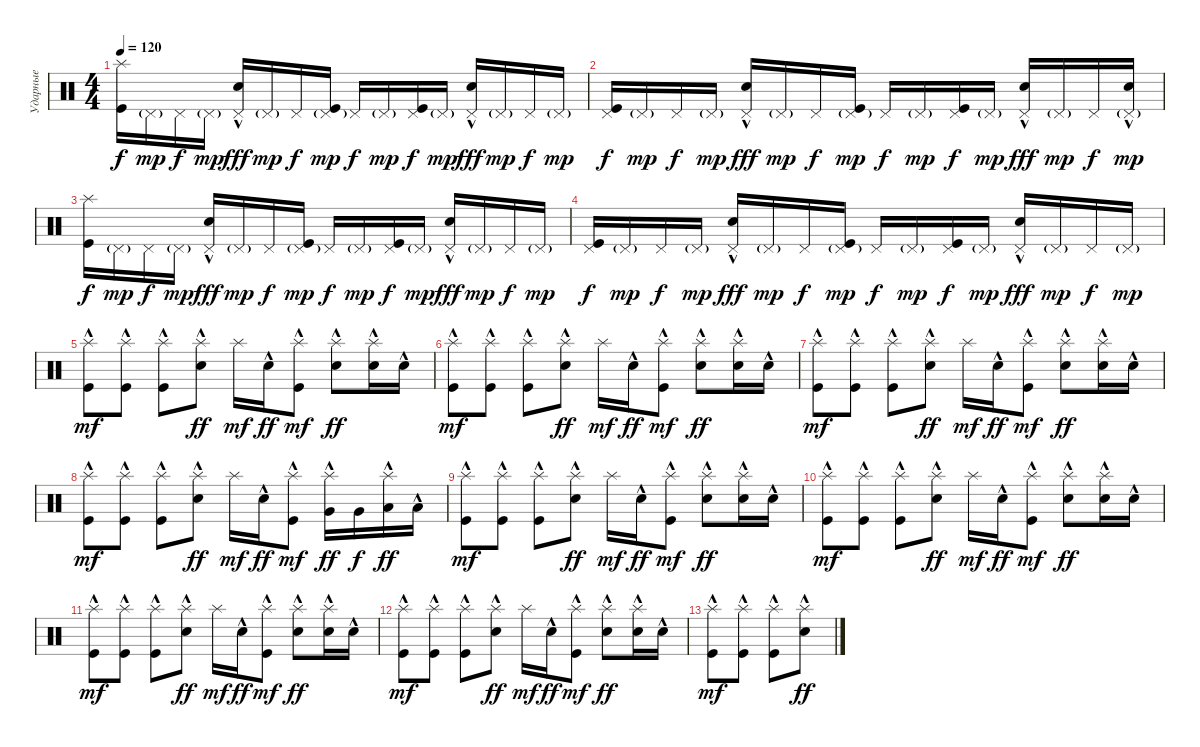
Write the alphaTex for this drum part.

\track ("Ударные" "Ударные") {instrument percussion}
\staff {score}
\articulation defaults
\ts (4 4)
\tempo 120
\clef neutral
\ks c
("Kick (hit)" "Splash (hit)").16{dy f} "Pedal Hi-Hat (hit)"{g}.16{dy mp} "Pedal Hi-Hat (hit)".16{dy f} "Pedal Hi-Hat (hit)"{g}.16{dy mp} ("Electric Snare (hit)"{hac} "Pedal Hi-Hat (hit)").16{dy fff} "Pedal Hi-Hat (hit)"{g}.16{dy mp} "Pedal Hi-Hat (hit)".16{dy f} ("Kick (hit)" "Pedal Hi-Hat (hit)"{g}).16{dy mp} "Pedal Hi-Hat (hit)".16{dy f} "Pedal Hi-Hat (hit)"{g}.16{dy mp} ("Kick (hit)" "Pedal Hi-Hat (hit)").16{dy f} "Pedal Hi-Hat (hit)"{g}.16{dy mp} ("Electric Snare (hit)"{hac} "Pedal Hi-Hat (hit)").16{dy fff} "Pedal Hi-Hat (hit)"{g}.16{dy mp} "Pedal Hi-Hat (hit)".16{dy f} "Pedal Hi-Hat (hit)"{g}.16{dy mp} |
("Kick (hit)" "Pedal Hi-Hat (hit)").16{dy f} "Pedal Hi-Hat (hit)"{g}.16{dy mp} "Pedal Hi-Hat (hit)".16{dy f} "Pedal Hi-Hat (hit)"{g}.16{dy mp} ("Electric Snare (hit)"{hac} "Pedal Hi-Hat (hit)").16{dy fff} "Pedal Hi-Hat (hit)"{g}.16{dy mp} "Pedal Hi-Hat (hit)".16{dy f} ("Kick (hit)" "Pedal Hi-Hat (hit)"{g}).16{dy mp} "Pedal Hi-Hat (hit)".16{dy f} "Pedal Hi-Hat (hit)"{g}.16{dy mp} ("Kick (hit)" "Pedal Hi-Hat (hit)").16{dy f} "Pedal Hi-Hat (hit)"{g}.16{dy mp} ("Electric Snare (hit)"{hac} "Pedal Hi-Hat (hit)").16{dy fff} "Pedal Hi-Hat (hit)"{g}.16{dy mp} "Pedal Hi-Hat (hit)".16{dy f} ("Electric Snare (hit)"{hac} "Pedal Hi-Hat (hit)"{g}).16{dy mp} |
("Kick (hit)" "Splash (hit)").16{dy f} "Pedal Hi-Hat (hit)"{g}.16{dy mp} "Pedal Hi-Hat (hit)".16{dy f} "Pedal Hi-Hat (hit)"{g}.16{dy mp} ("Electric Snare (hit)"{hac} "Pedal Hi-Hat (hit)").16{dy fff} "Pedal Hi-Hat (hit)"{g}.16{dy mp} "Pedal Hi-Hat (hit)".16{dy f} ("Kick (hit)" "Pedal Hi-Hat (hit)"{g}).16{dy mp} "Pedal Hi-Hat (hit)".16{dy f} "Pedal Hi-Hat (hit)"{g}.16{dy mp} ("Kick (hit)" "Pedal Hi-Hat (hit)").16{dy f} "Pedal Hi-Hat (hit)"{g}.16{dy mp} ("Electric Snare (hit)"{hac} "Pedal Hi-Hat (hit)").16{dy fff} "Pedal Hi-Hat (hit)"{g}.16{dy mp} "Pedal Hi-Hat (hit)".16{dy f} "Pedal Hi-Hat (hit)"{g}.16{dy mp} |
("Kick (hit)" "Pedal Hi-Hat (hit)").16{dy f} "Pedal Hi-Hat (hit)"{g}.16{dy mp} "Pedal Hi-Hat (hit)".16{dy f} "Pedal Hi-Hat (hit)"{g}.16{dy mp} ("Electric Snare (hit)"{hac} "Pedal Hi-Hat (hit)").16{dy fff} "Pedal Hi-Hat (hit)"{g}.16{dy mp} "Pedal Hi-Hat (hit)".16{dy f} ("Kick (hit)" "Pedal Hi-Hat (hit)"{g}).16{dy mp} "Pedal Hi-Hat (hit)".16{dy f} "Pedal Hi-Hat (hit)"{g}.16{dy mp} ("Kick (hit)" "Pedal Hi-Hat (hit)").16{dy f} "Pedal Hi-Hat (hit)"{g}.16{dy mp} ("Electric Snare (hit)"{hac} "Pedal Hi-Hat (hit)").16{dy fff} "Pedal Hi-Hat (hit)"{g}.16{dy mp} "Pedal Hi-Hat (hit)".16{dy f} "Pedal Hi-Hat (hit)"{g}.16{dy mp} |
("Kick (hit)"{hac} "Splash (hit)").8{dy mf} ("Kick (hit)"{hac} "Splash (hit)").8 ("Kick (hit)"{hac} "Splash (hit)").8 ("Splash (hit)" "Electric Snare (hit)"{hac}).8{dy ff} "Splash (hit)".16{dy mf} "Electric Snare (hit)"{hac}.16{dy ff} ("Kick (hit)"{hac} "Splash (hit)").8{dy mf} ("Splash (hit)" "Electric Snare (hit)"{hac}).8{dy ff} ("Splash (hit)" "Electric Snare (hit)"{hac}).16 "Electric Snare (hit)"{hac}.16 |
("Kick (hit)"{hac} "Splash (hit)").8{dy mf} ("Kick (hit)"{hac} "Splash (hit)").8 ("Kick (hit)"{hac} "Splash (hit)").8 ("Splash (hit)" "Electric Snare (hit)"{hac}).8{dy ff} "Splash (hit)".16{dy mf} "Electric Snare (hit)"{hac}.16{dy ff} ("Kick (hit)"{hac} "Splash (hit)").8{dy mf} ("Splash (hit)" "Electric Snare (hit)"{hac}).8{dy ff} ("Splash (hit)" "Electric Snare (hit)"{hac}).16 "Electric Snare (hit)"{hac}.16 |
("Kick (hit)"{hac} "Splash (hit)").8{dy mf} ("Kick (hit)"{hac} "Splash (hit)").8 ("Kick (hit)"{hac} "Splash (hit)").8 ("Splash (hit)" "Electric Snare (hit)"{hac}).8{dy ff} "Splash (hit)".16{dy mf} "Electric Snare (hit)"{hac}.16{dy ff} ("Kick (hit)"{hac} "Splash (hit)").8{dy mf} ("Splash (hit)" "Electric Snare (hit)"{hac}).8{dy ff} ("Splash (hit)" "Electric Snare (hit)"{hac}).16 "Electric Snare (hit)"{hac}.16 |
("Kick (hit)"{hac} "Splash (hit)").8{dy mf} ("Kick (hit)"{hac} "Splash (hit)").8 ("Kick (hit)"{hac} "Splash (hit)").8 ("Splash (hit)" "Electric Snare (hit)"{hac}).8{dy ff} "Splash (hit)".16{dy mf} "Electric Snare (hit)"{hac}.16{dy ff} ("Kick (hit)"{hac} "Splash (hit)").8{dy mf} ("Splash (hit)" "Very Low Tom (hit)"{hac}).16{dy ff} "Very Low Tom (hit)".16{dy f} ("Splash (hit)" "Low Floor Tom (hit)"{hac}).16{dy ff} "Low Floor Tom (hit)"{hac}.16 |
("Kick (hit)"{hac} "Splash (hit)").8{dy mf} ("Kick (hit)"{hac} "Splash (hit)").8 ("Kick (hit)"{hac} "Splash (hit)").8 ("Splash (hit)" "Electric Snare (hit)"{hac}).8{dy ff} "Splash (hit)".16{dy mf} "Electric Snare (hit)"{hac}.16{dy ff} ("Kick (hit)"{hac} "Splash (hit)").8{dy mf} ("Splash (hit)" "Electric Snare (hit)"{hac}).8{dy ff} ("Splash (hit)" "Electric Snare (hit)"{hac}).16 "Electric Snare (hit)"{hac}.16 |
("Kick (hit)"{hac} "Splash (hit)").8{dy mf} ("Kick (hit)"{hac} "Splash (hit)").8 ("Kick (hit)"{hac} "Splash (hit)").8 ("Splash (hit)" "Electric Snare (hit)"{hac}).8{dy ff} "Splash (hit)".16{dy mf} "Electric Snare (hit)"{hac}.16{dy ff} ("Kick (hit)"{hac} "Splash (hit)").8{dy mf} ("Splash (hit)" "Electric Snare (hit)"{hac}).8{dy ff} ("Splash (hit)" "Electric Snare (hit)"{hac}).16 "Electric Snare (hit)"{hac}.16 |
("Kick (hit)"{hac} "Splash (hit)").8{dy mf} ("Kick (hit)"{hac} "Splash (hit)").8 ("Kick (hit)"{hac} "Splash (hit)").8 ("Splash (hit)" "Electric Snare (hit)"{hac}).8{dy ff} "Splash (hit)".16{dy mf} "Electric Snare (hit)"{hac}.16{dy ff} ("Kick (hit)"{hac} "Splash (hit)").8{dy mf} ("Splash (hit)" "Electric Snare (hit)"{hac}).8{dy ff} ("Splash (hit)" "Electric Snare (hit)"{hac}).16 "Electric Snare (hit)"{hac}.16 |
("Kick (hit)"{hac} "Splash (hit)").8{dy mf} ("Kick (hit)"{hac} "Splash (hit)").8 ("Kick (hit)"{hac} "Splash (hit)").8 ("Splash (hit)" "Electric Snare (hit)"{hac}).8{dy ff} "Splash (hit)".16{dy mf} "Electric Snare (hit)"{hac}.16{dy ff} ("Kick (hit)"{hac} "Splash (hit)").8{dy mf} ("Splash (hit)" "Electric Snare (hit)"{hac}).8{dy ff} ("Splash (hit)" "Electric Snare (hit)"{hac}).16 "Electric Snare (hit)"{hac}.16 |
("Kick (hit)"{hac} "Splash (hit)").8{dy mf} ("Kick (hit)"{hac} "Splash (hit)").8 ("Kick (hit)"{hac} "Splash (hit)").8 ("Splash (hit)" "Electric Snare (hit)"{hac}).8{dy ff}
